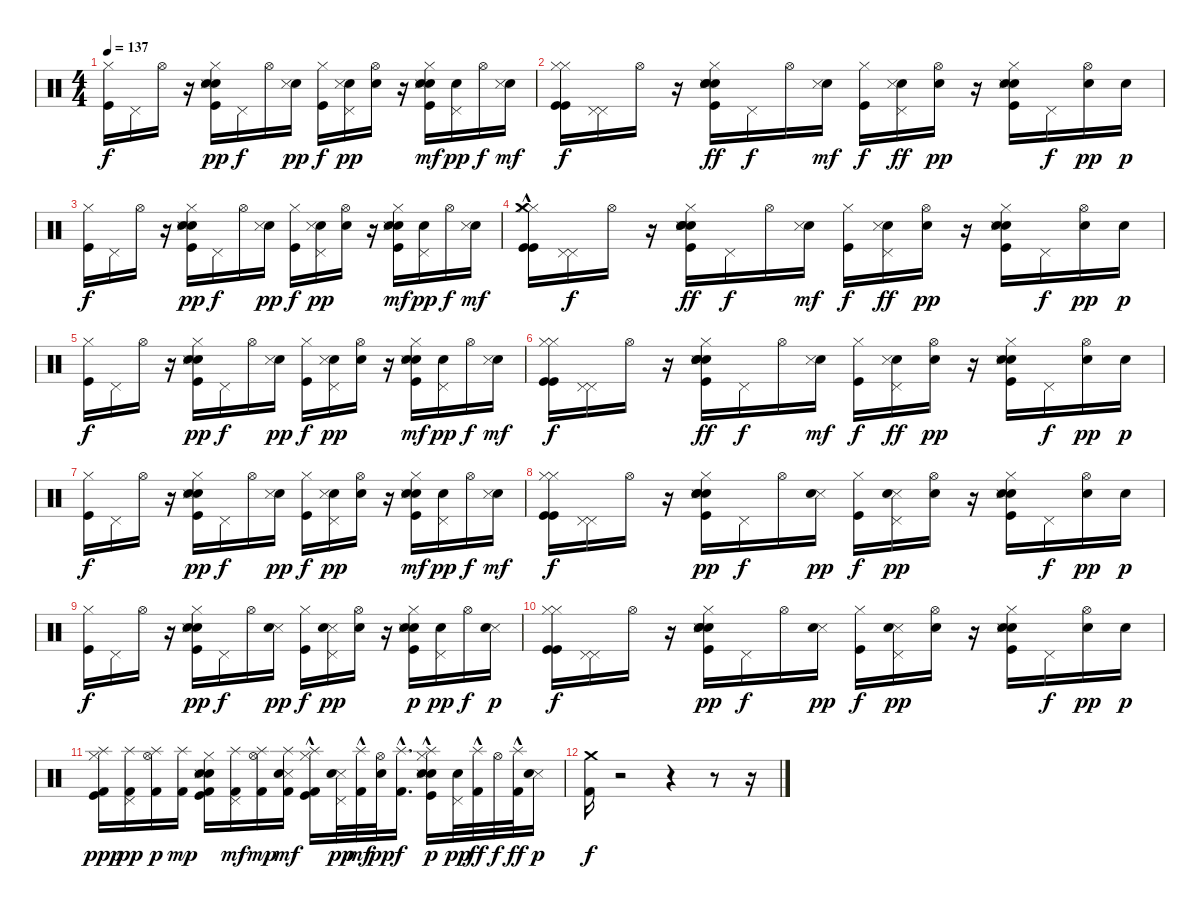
\track "" {instrument percussion}
\staff {score}
\articulation defaults
\ts (4 4)
\tempo 137
\clef neutral
\ks c
("Hi-Hat (closed)" "Kick (hit)").16{dy f} "Pedal Hi-Hat (hit)".16 "Hi-Hat (open)".16 r.16 ("Hand Clap (hit)" "Kick (hit)" "Hi-Hat (closed)" "Metronome (bell)" "Snare (side stick) 3").16{dy pp} "Pedal Hi-Hat (hit)".16{dy f} "Hi-Hat (open)".16 ("Metronome (bell)" "Snare (side stick) 3").16{dy pp} ("Kick (hit)" "Hi-Hat (closed)").16{dy f} ("Pedal Hi-Hat (hit)" "Metronome (bell)" "Snare (side stick) 3").16{dy pp} ("Hi-Hat (open)" "Metronome (bell)").16 r.16 ("Hand Clap (hit)" "Hi-Hat (closed)" "Kick (hit)" "Metronome (bell)" "Snare (side stick) 3").16{dy mf} ("Pedal Hi-Hat (hit)" "Metronome (bell)").16{dy pp} "Hi-Hat (open)".16{dy f} ("Metronome (bell)" "Snare (side stick) 3").16{dy mf} |
("Hi-Hat (closed)" "Kick (hit)" "Kick (hit)" "Hi-Hat (closed)").16{dy f volume 13} ("Pedal Hi-Hat (hit)" "Pedal Hi-Hat (hit)").16 "Hi-Hat (open)".16 r.16 ("Hand Clap (hit)" "Kick (hit)" "Hi-Hat (closed)" "Metronome (bell)" "Metronome (bell)" "Snare (side stick) 3").16{dy ff} "Pedal Hi-Hat (hit)".16{dy f} "Hi-Hat (open)".16 ("Metronome (bell)" "Snare (side stick) 3").16{dy mf} ("Kick (hit)" "Hi-Hat (closed)").16{dy f} ("Pedal Hi-Hat (hit)" "Metronome (bell)" "Snare (side stick) 3").16{dy ff} ("Hi-Hat (open)" "Metronome (bell)").16{dy pp} r.16 ("Hand Clap (hit)" "Hi-Hat (closed)" "Kick (hit)" "Metronome (bell)" "Snare (side stick) 3").16 "Pedal Hi-Hat (hit)".16{dy f} ("Hi-Hat (open)" "Metronome (bell)").16{dy pp} "Metronome (bell)".16{dy p} |
("Hi-Hat (closed)" "Kick (hit)").16{dy f} "Pedal Hi-Hat (hit)".16 "Hi-Hat (open)".16 r.16 ("Hand Clap (hit)" "Kick (hit)" "Hi-Hat (closed)" "Metronome (bell)" "Snare (side stick) 3").16{dy pp} "Pedal Hi-Hat (hit)".16{dy f} "Hi-Hat (open)".16 ("Metronome (bell)" "Snare (side stick) 3").16{dy pp} ("Kick (hit)" "Hi-Hat (closed)").16{dy f} ("Pedal Hi-Hat (hit)" "Metronome (bell)" "Snare (side stick) 3").16{dy pp} ("Hi-Hat (open)" "Metronome (bell)").16 r.16 ("Hand Clap (hit)" "Hi-Hat (closed)" "Kick (hit)" "Metronome (bell)" "Snare (side stick) 3").16{dy mf} ("Pedal Hi-Hat (hit)" "Metronome (bell)").16{dy pp} "Hi-Hat (open)".16{dy f} ("Metronome (bell)" "Snare (side stick) 3").16{dy mf} |
("Hi-Hat (closed)" "Kick (hit)" "Kick (hit)" "Hi-Hat (closed)" "Crash medium (hit)"{hac}).16{volume 13} ("Pedal Hi-Hat (hit)" "Pedal Hi-Hat (hit)").16{dy f} "Hi-Hat (open)".16 r.16 ("Hand Clap (hit)" "Kick (hit)" "Hi-Hat (closed)" "Metronome (bell)" "Metronome (bell)" "Snare (side stick) 3").16{dy ff} "Pedal Hi-Hat (hit)".16{dy f} "Hi-Hat (open)".16 ("Metronome (bell)" "Snare (side stick) 3").16{dy mf} ("Kick (hit)" "Hi-Hat (closed)").16{dy f} ("Pedal Hi-Hat (hit)" "Metronome (bell)" "Snare (side stick) 3").16{dy ff} ("Hi-Hat (open)" "Metronome (bell)").16{dy pp} r.16 ("Hand Clap (hit)" "Hi-Hat (closed)" "Kick (hit)" "Metronome (bell)" "Snare (side stick) 3").16 "Pedal Hi-Hat (hit)".16{dy f} ("Hi-Hat (open)" "Metronome (bell)").16{dy pp} "Metronome (bell)".16{dy p} |
("Hi-Hat (closed)" "Kick (hit)").16{dy f} "Pedal Hi-Hat (hit)".16 "Hi-Hat (open)".16 r.16 ("Hand Clap (hit)" "Kick (hit)" "Hi-Hat (closed)" "Metronome (bell)" "Snare (side stick) 3").16{dy pp} "Pedal Hi-Hat (hit)".16{dy f} "Hi-Hat (open)".16 ("Metronome (bell)" "Snare (side stick) 3").16{dy pp} ("Kick (hit)" "Hi-Hat (closed)").16{dy f} ("Pedal Hi-Hat (hit)" "Metronome (bell)" "Snare (side stick) 3").16{dy pp} ("Hi-Hat (open)" "Metronome (bell)").16 r.16 ("Hand Clap (hit)" "Hi-Hat (closed)" "Kick (hit)" "Metronome (bell)" "Snare (side stick) 3").16{dy mf} ("Pedal Hi-Hat (hit)" "Metronome (bell)").16{dy pp} "Hi-Hat (open)".16{dy f} ("Metronome (bell)" "Snare (side stick) 3").16{dy mf} |
("Hi-Hat (closed)" "Kick (hit)" "Kick (hit)" "Hi-Hat (closed)").16{dy f volume 13} ("Pedal Hi-Hat (hit)" "Pedal Hi-Hat (hit)").16 "Hi-Hat (open)".16 r.16 ("Hand Clap (hit)" "Kick (hit)" "Hi-Hat (closed)" "Metronome (bell)" "Metronome (bell)" "Snare (side stick) 3").16{dy ff} "Pedal Hi-Hat (hit)".16{dy f} "Hi-Hat (open)".16 ("Metronome (bell)" "Snare (side stick) 3").16{dy mf} ("Kick (hit)" "Hi-Hat (closed)").16{dy f} ("Pedal Hi-Hat (hit)" "Metronome (bell)" "Snare (side stick) 3").16{dy ff} ("Hi-Hat (open)" "Metronome (bell)").16{dy pp} r.16 ("Hand Clap (hit)" "Hi-Hat (closed)" "Kick (hit)" "Metronome (bell)" "Snare (side stick) 3").16 "Pedal Hi-Hat (hit)".16{dy f} ("Hi-Hat (open)" "Metronome (bell)").16{dy pp} "Metronome (bell)".16{dy p} |
("Hi-Hat (closed)" "Kick (hit)").16{dy f} "Pedal Hi-Hat (hit)".16 "Hi-Hat (open)".16 r.16 ("Hand Clap (hit)" "Kick (hit)" "Hi-Hat (closed)" "Metronome (bell)" "Snare (side stick) 3").16{dy pp} "Pedal Hi-Hat (hit)".16{dy f} "Hi-Hat (open)".16 ("Metronome (bell)" "Snare (side stick) 3").16{dy pp} ("Kick (hit)" "Hi-Hat (closed)").16{dy f} ("Pedal Hi-Hat (hit)" "Metronome (bell)" "Snare (side stick) 3").16{dy pp} ("Hi-Hat (open)" "Metronome (bell)").16 r.16 ("Hand Clap (hit)" "Hi-Hat (closed)" "Kick (hit)" "Metronome (bell)" "Snare (side stick) 3").16{dy mf} ("Pedal Hi-Hat (hit)" "Metronome (bell)").16{dy pp} "Hi-Hat (open)".16{dy f} ("Metronome (bell)" "Snare (side stick) 3").16{dy mf} |
("Hi-Hat (closed)" "Kick (hit)" "Kick (hit)" "Hi-Hat (closed)").16{dy f volume 13} ("Pedal Hi-Hat (hit)" "Pedal Hi-Hat (hit)").16 "Hi-Hat (open)".16 r.16 ("Hand Clap (hit)" "Kick (hit)" "Hi-Hat (closed)" "Snare (side stick) 3" "Metronome (bell)" "Metronome (bell)").16{dy pp} "Pedal Hi-Hat (hit)".16{dy f} "Hi-Hat (open)".16 ("Snare (side stick) 3" "Metronome (bell)").16{dy pp} ("Kick (hit)" "Hi-Hat (closed)").16{dy f} ("Pedal Hi-Hat (hit)" "Snare (side stick) 3" "Metronome (bell)").16{dy pp} ("Hi-Hat (open)" "Metronome (bell)").16 r.16 ("Hand Clap (hit)" "Hi-Hat (closed)" "Kick (hit)" "Snare (side stick) 3" "Metronome (bell)").16 "Pedal Hi-Hat (hit)".16{dy f} ("Hi-Hat (open)" "Metronome (bell)").16{dy pp} "Metronome (bell)".16{dy p} |
("Hi-Hat (closed)" "Kick (hit)").16{dy f} "Pedal Hi-Hat (hit)".16 "Hi-Hat (open)".16 r.16 ("Hand Clap (hit)" "Kick (hit)" "Hi-Hat (closed)" "Snare (side stick) 3" "Metronome (bell)").16{dy pp} "Pedal Hi-Hat (hit)".16{dy f} "Hi-Hat (open)".16 ("Snare (side stick) 3" "Metronome (bell)").16{dy pp} ("Kick (hit)" "Hi-Hat (closed)").16{dy f} ("Pedal Hi-Hat (hit)" "Snare (side stick) 3" "Metronome (bell)").16{dy pp} ("Hi-Hat (open)" "Metronome (bell)").16 r.16 ("Hand Clap (hit)" "Hi-Hat (closed)" "Kick (hit)" "Snare (side stick) 3" "Metronome (bell)").16{dy p} ("Pedal Hi-Hat (hit)" "Metronome (bell)").16{dy pp} "Hi-Hat (open)".16{dy f} ("Snare (side stick) 3" "Metronome (bell)").16{dy p} |
("Hi-Hat (closed)" "Kick (hit)" "Kick (hit)" "Hi-Hat (closed)").16{dy f volume 13} ("Pedal Hi-Hat (hit)" "Pedal Hi-Hat (hit)").16 "Hi-Hat (open)".16 r.16 ("Hand Clap (hit)" "Kick (hit)" "Hi-Hat (closed)" "Snare (side stick) 3" "Metronome (bell)" "Metronome (bell)").16{dy pp} "Pedal Hi-Hat (hit)".16{dy f} "Hi-Hat (open)".16 ("Snare (side stick) 3" "Metronome (bell)").16{dy pp} ("Kick (hit)" "Hi-Hat (closed)").16{dy f} ("Pedal Hi-Hat (hit)" "Snare (side stick) 3" "Metronome (bell)").16{dy pp} ("Hi-Hat (open)" "Metronome (bell)").16 r.16 ("Hand Clap (hit)" "Hi-Hat (closed)" "Kick (hit)" "Snare (side stick) 3" "Metronome (bell)").16 "Pedal Hi-Hat (hit)".16{dy f} ("Hi-Hat (open)" "Metronome (bell)").16{dy pp} "Metronome (bell)".16{dy p} |
("Hi-Hat (closed)" "Kick (hit)" "Kick (hit) 2" "Splash (hit)").16{dy ppp} ("Pedal Hi-Hat (hit)" "Kick (hit) 2" "Splash (hit)").16{dy pp} ("Hi-Hat (open)" "Splash (hit)" "Kick (hit) 2").16{dy p} ("Kick (hit) 2" "Splash (hit)").16{dy mp} ("Hand Clap (hit)" "Kick (hit)" "Hi-Hat (closed)" "Snare (side stick) 3" "Metronome (bell)" "Kick (hit) 2").16 ("Pedal Hi-Hat (hit)" "Kick (hit) 2" "Splash (hit)").16{dy mf} ("Hi-Hat (open)" "Kick (hit) 2" "Splash (hit)").16{dy mp} ("Snare (side stick) 3" "Metronome (bell)" "Splash (hit)" "Kick (hit) 2").16{dy mf} ("Kick (hit)" "Hi-Hat (closed)" "Kick (hit) 2"{hac} "Splash (hit)"{hac}).16 ("Pedal Hi-Hat (hit)" "Snare (side stick) 3" "Metronome (bell)").32{dy pp} ("Splash (hit)"{hac} "Kick (hit) 2"{hac}).32{dy mf} ("Hi-Hat (open)" "Metronome (bell)").32{dy pp} ("Kick (hit) 2" "Splash (hit)"{hac}).16{d dy f} ("Hand Clap (hit)" "Hi-Hat (closed)" "Kick (hit)" "Snare (side stick) 3" "Metronome (bell)" "Splash (hit)"{hac}).16{dy p} ("Pedal Hi-Hat (hit)" "Metronome (bell)").32{dy pp} ("Kick (hit) 2"{hac} "Splash (hit)"{hac}).32{dy ff} "Hi-Hat (open)".32{dy f} ("Kick (hit) 2"{hac} "Splash (hit)"{hac}).32{dy ff} ("Snare (side stick) 3" "Metronome (bell)").16{dy p} |
("Kick (hit) 2" "Crash medium (hit)").16{dy f} r.2 r.4 r.8 r.16
